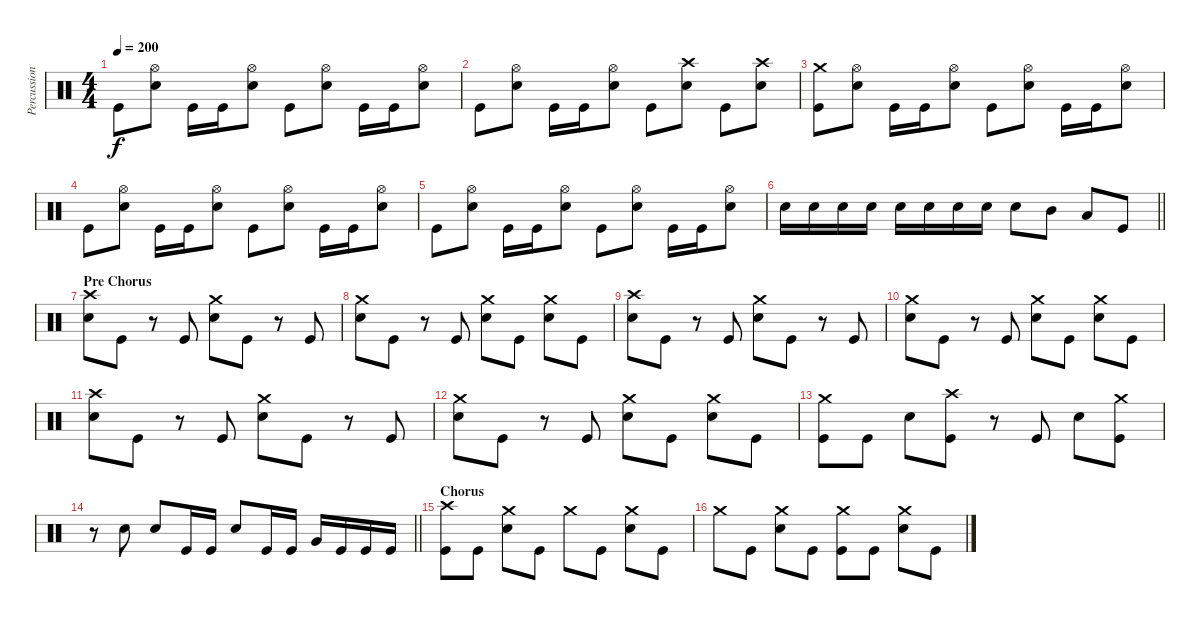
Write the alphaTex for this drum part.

\track ("Percussion" "Percussion") {instrument percussion}
\staff {score}
\articulation defaults
\ts (4 4)
\tempo 200
\clef neutral
\ks c "Kick (hit)".8{dy f}
("Hi-Hat (open)" "Electric Snare (hit)").8 "Kick (hit)".16 "Kick (hit)".16 ("Hi-Hat (open)" "Electric Snare (hit)").8 "Kick (hit)".8 ("Hi-Hat (open)" "Electric Snare (hit)").8 "Kick (hit)".16 "Kick (hit)".16 ("Hi-Hat (open)" "Electric Snare (hit)").8 |
"Kick (hit)".8 ("Hi-Hat (open)" "Electric Snare (hit)").8 "Kick (hit)".16 "Kick (hit)".16 ("Hi-Hat (open)" "Electric Snare (hit)").8 "Kick (hit)".8 ("Crash high (hit)" "Electric Snare (hit)").8 "Kick (hit)".8 ("Crash high (hit)" "Electric Snare (hit)").8 |
("Crash medium (hit)" "Kick (hit)").8 ("Hi-Hat (open)" "Electric Snare (hit)").8 "Kick (hit)".16 "Kick (hit)".16 ("Hi-Hat (open)" "Electric Snare (hit)").8 "Kick (hit)".8 ("Hi-Hat (open)" "Electric Snare (hit)").8 "Kick (hit)".16 "Kick (hit)".16 ("Hi-Hat (open)" "Electric Snare (hit)").8 |
"Kick (hit)".8 ("Hi-Hat (open)" "Electric Snare (hit)").8 "Kick (hit)".16 "Kick (hit)".16 ("Hi-Hat (open)" "Electric Snare (hit)").8 "Kick (hit)".8 ("Hi-Hat (open)" "Electric Snare (hit)").8 "Kick (hit)".16 "Kick (hit)".16 ("Hi-Hat (open)" "Electric Snare (hit)").8 |
"Kick (hit)".8 ("Hi-Hat (open)" "Electric Snare (hit)").8 "Kick (hit)".16 "Kick (hit)".16 ("Hi-Hat (open)" "Electric Snare (hit)").8 "Kick (hit)".8 ("Hi-Hat (open)" "Electric Snare (hit)").8 "Kick (hit)".16 "Kick (hit)".16 ("Hi-Hat (open)" "Electric Snare (hit)").8 |
\barLineRight lightlight "Electric Snare (hit)".16 "Electric Snare (hit)".16 "Electric Snare (hit)".16 "Electric Snare (hit)".16 "Electric Snare (hit)".16 "Electric Snare (hit)".16 "Electric Snare (hit)".16 "Electric Snare (hit)".16 "Electric Snare (hit)".8 "Mid Tom (hit)".8 "Low Tom (hit)".8 "Kick (hit)".8
|
\section ("" "Pre Chorus")
("Crash high (hit)" "Electric Snare (hit)").8 "Kick (hit)".8 r.8 "Kick (hit)".8 ("Crash medium (hit)" "Electric Snare (hit)").8 "Kick (hit)".8 r.8 "Kick (hit)".8 |
("Crash medium (hit)" "Electric Snare (hit)").8 "Kick (hit)".8 r.8 "Kick (hit)".8 ("Crash medium (hit)" "Electric Snare (hit)").8 "Kick (hit)".8 ("Crash medium (hit)" "Electric Snare (hit)").8 "Kick (hit)".8 |
("Crash high (hit)" "Electric Snare (hit)").8 "Kick (hit)".8 r.8 "Kick (hit)".8 ("Crash medium (hit)" "Electric Snare (hit)").8 "Kick (hit)".8 r.8 "Kick (hit)".8 |
("Crash medium (hit)" "Electric Snare (hit)").8 "Kick (hit)".8 r.8 "Kick (hit)".8 ("Crash medium (hit)" "Electric Snare (hit)").8 "Kick (hit)".8 ("Crash medium (hit)" "Electric Snare (hit)").8 "Kick (hit)".8 |
("Crash high (hit)" "Electric Snare (hit)").8 "Kick (hit)".8 r.8 "Kick (hit)".8 ("Crash medium (hit)" "Electric Snare (hit)").8 "Kick (hit)".8 r.8 "Kick (hit)".8 |
("Crash medium (hit)" "Electric Snare (hit)").8 "Kick (hit)".8 r.8 "Kick (hit)".8 ("Crash medium (hit)" "Electric Snare (hit)").8 "Kick (hit)".8 ("Crash medium (hit)" "Electric Snare (hit)").8 "Kick (hit)".8 |
("Crash medium (hit)" "Kick (hit)").8 "Kick (hit)".8 "Electric Snare (hit)".8 ("Crash high (hit)" "Kick (hit)").8 r.8 "Kick (hit)".8 "Electric Snare (hit)".8 ("Crash medium (hit)" "Kick (hit)").8 |
\barLineRight lightlight
r.8 "Electric Snare (hit)".8 "Electric Snare (hit)".8 "Kick (hit)".16 "Kick (hit)".16 "Electric Snare (hit)".8 "Kick (hit)".16 "Kick (hit)".16 "Very Low Tom (hit)".16 "Kick (hit)".16 "Kick (hit)".16 "Kick (hit)".16 |
\section ("" "Chorus")
("Crash high (hit)" "Kick (hit)").8 "Kick (hit)".8 ("Crash medium (hit)" "Electric Snare (hit)").8 "Kick (hit)".8 "Crash medium (hit)".8 "Kick (hit)".8 ("Crash medium (hit)" "Electric Snare (hit)").8 "Kick (hit)".8 |
"Crash medium (hit)".8 "Kick (hit)".8 ("Crash medium (hit)" "Electric Snare (hit)").8 "Kick (hit)".8 ("Crash medium (hit)" "Kick (hit)").8 "Kick (hit)".8 ("Crash medium (hit)" "Electric Snare (hit)").8 "Kick (hit)".8
